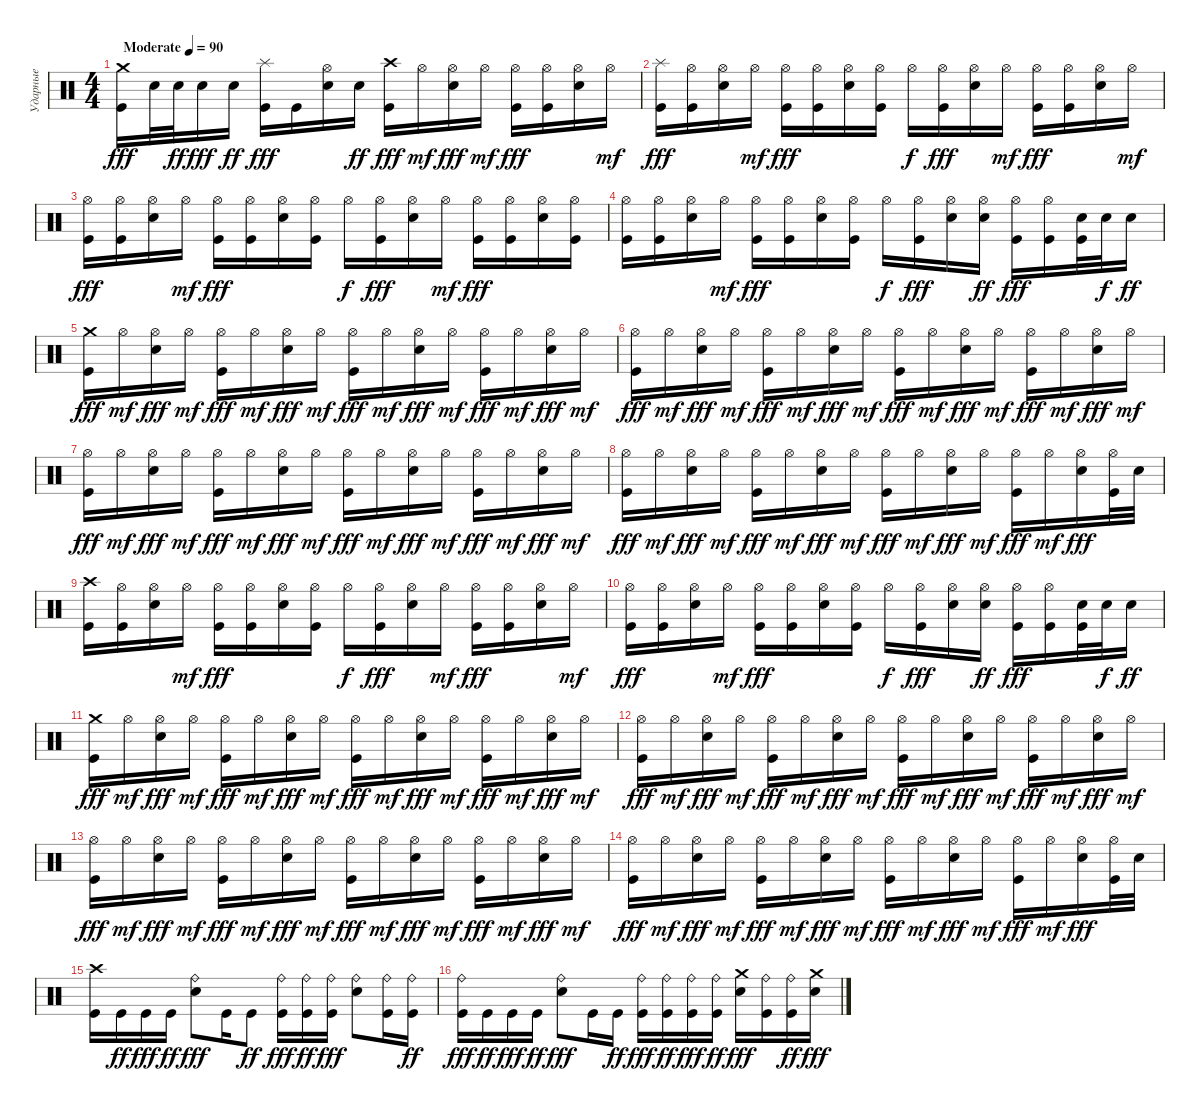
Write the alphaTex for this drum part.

\track ("Ударные" "Ударные") {instrument percussion}
\staff {score}
\articulation defaults
\ts (4 4)
\tempo (90 "Moderate")
\clef neutral
\ks c
("Crash medium (hit)" "Kick (hit)").16{dy fff} "Electric Snare (hit)".32 "Electric Snare (hit)".32{dy ff} "Electric Snare (hit)".16{dy fff} "Electric Snare (hit)".16{dy ff} ("Splash (hit)" "Kick (hit)").16{dy fff} "Kick (hit)".16 ("Hi-Hat (open)" "Electric Snare (hit)").16 "Electric Snare (hit)".16{dy ff} ("Crash high (hit)" "Kick (hit)").16{dy fff} "Hi-Hat (open)".16{dy mf} ("Hi-Hat (open)" "Electric Snare (hit)").16{dy fff} "Hi-Hat (open)".16{dy mf} ("Hi-Hat (open)" "Kick (hit)").16{dy fff} ("Hi-Hat (open)" "Kick (hit)").16 ("Hi-Hat (open)" "Electric Snare (hit)").16 "Hi-Hat (open)".16{dy mf} |
("Splash (hit)" "Kick (hit)").16{dy fff} ("Hi-Hat (open)" "Kick (hit)").16 ("Hi-Hat (open)" "Electric Snare (hit)").16 "Hi-Hat (open)".16{dy mf} ("Hi-Hat (open)" "Kick (hit)").16{dy fff} ("Hi-Hat (open)" "Kick (hit)").16 ("Hi-Hat (open)" "Electric Snare (hit)").16 ("Hi-Hat (open)" "Kick (hit)").16 "Hi-Hat (open)".16{dy f} ("Hi-Hat (open)" "Kick (hit)").16{dy fff} ("Hi-Hat (open)" "Electric Snare (hit)").16 "Hi-Hat (open)".16{dy mf} ("Hi-Hat (open)" "Kick (hit)").16{dy fff} ("Hi-Hat (open)" "Kick (hit)").16 ("Hi-Hat (open)" "Electric Snare (hit)").16 "Hi-Hat (open)".16{dy mf} |
("Hi-Hat (open)" "Kick (hit)").16{dy fff} ("Hi-Hat (open)" "Kick (hit)").16 ("Hi-Hat (open)" "Electric Snare (hit)").16 "Hi-Hat (open)".16{dy mf} ("Hi-Hat (open)" "Kick (hit)").16{dy fff} ("Hi-Hat (open)" "Kick (hit)").16 ("Hi-Hat (open)" "Electric Snare (hit)").16 ("Hi-Hat (open)" "Kick (hit)").16 "Hi-Hat (open)".16{dy f} ("Hi-Hat (open)" "Kick (hit)").16{dy fff} ("Hi-Hat (open)" "Electric Snare (hit)").16 "Hi-Hat (open)".16{dy mf} ("Hi-Hat (open)" "Kick (hit)").16{dy fff} ("Hi-Hat (open)" "Kick (hit)").16 ("Hi-Hat (open)" "Electric Snare (hit)").16 ("Hi-Hat (open)" "Kick (hit)").16 |
("Hi-Hat (open)" "Kick (hit)").16 ("Hi-Hat (open)" "Kick (hit)").16 ("Hi-Hat (open)" "Electric Snare (hit)").16 "Hi-Hat (open)".16{dy mf} ("Hi-Hat (open)" "Kick (hit)").16{dy fff} ("Hi-Hat (open)" "Kick (hit)").16 ("Hi-Hat (open)" "Electric Snare (hit)").16 ("Hi-Hat (open)" "Kick (hit)").16 "Hi-Hat (open)".16{dy f} ("Hi-Hat (open)" "Kick (hit)").16{dy fff} ("Hi-Hat (open)" "Electric Snare (hit)").16 ("Hi-Hat (open)" "Electric Snare (hit)").16{dy ff} ("Hi-Hat (open)" "Kick (hit)").16{dy fff} ("Hi-Hat (open)" "Kick (hit)").16 ("Electric Snare (hit)" "Kick (hit)").32 "Electric Snare (hit)".32{dy f} "Electric Snare (hit)".16{dy ff} |
("Crash medium (hit)" "Kick (hit)").16{dy fff} "Hi-Hat (open)".16{dy mf} ("Hi-Hat (open)" "Electric Snare (hit)").16{dy fff} "Hi-Hat (open)".16{dy mf} ("Hi-Hat (open)" "Kick (hit)").16{dy fff} "Hi-Hat (open)".16{dy mf} ("Hi-Hat (open)" "Electric Snare (hit)").16{dy fff} "Hi-Hat (open)".16{dy mf} ("Hi-Hat (open)" "Kick (hit)").16{dy fff} "Hi-Hat (open)".16{dy mf} ("Hi-Hat (open)" "Electric Snare (hit)").16{dy fff} "Hi-Hat (open)".16{dy mf} ("Hi-Hat (open)" "Kick (hit)").16{dy fff} "Hi-Hat (open)".16{dy mf} ("Hi-Hat (open)" "Electric Snare (hit)").16{dy fff} "Hi-Hat (open)".16{dy mf} |
("Hi-Hat (open)" "Kick (hit)").16{dy fff} "Hi-Hat (open)".16{dy mf} ("Hi-Hat (open)" "Electric Snare (hit)").16{dy fff} "Hi-Hat (open)".16{dy mf} ("Hi-Hat (open)" "Kick (hit)").16{dy fff} "Hi-Hat (open)".16{dy mf} ("Hi-Hat (open)" "Electric Snare (hit)").16{dy fff} "Hi-Hat (open)".16{dy mf} ("Hi-Hat (open)" "Kick (hit)").16{dy fff} "Hi-Hat (open)".16{dy mf} ("Hi-Hat (open)" "Electric Snare (hit)").16{dy fff} "Hi-Hat (open)".16{dy mf} ("Hi-Hat (open)" "Kick (hit)").16{dy fff} "Hi-Hat (open)".16{dy mf} ("Hi-Hat (open)" "Electric Snare (hit)").16{dy fff} "Hi-Hat (open)".16{dy mf} |
("Hi-Hat (open)" "Kick (hit)").16{dy fff} "Hi-Hat (open)".16{dy mf} ("Hi-Hat (open)" "Electric Snare (hit)").16{dy fff} "Hi-Hat (open)".16{dy mf} ("Hi-Hat (open)" "Kick (hit)").16{dy fff} "Hi-Hat (open)".16{dy mf} ("Hi-Hat (open)" "Electric Snare (hit)").16{dy fff} "Hi-Hat (open)".16{dy mf} ("Hi-Hat (open)" "Kick (hit)").16{dy fff} "Hi-Hat (open)".16{dy mf} ("Hi-Hat (open)" "Electric Snare (hit)").16{dy fff} "Hi-Hat (open)".16{dy mf} ("Hi-Hat (open)" "Kick (hit)").16{dy fff} "Hi-Hat (open)".16{dy mf} ("Hi-Hat (open)" "Electric Snare (hit)").16{dy fff} "Hi-Hat (open)".16{dy mf} |
("Hi-Hat (open)" "Kick (hit)").16{dy fff} "Hi-Hat (open)".16{dy mf} ("Hi-Hat (open)" "Electric Snare (hit)").16{dy fff} "Hi-Hat (open)".16{dy mf} ("Hi-Hat (open)" "Kick (hit)").16{dy fff} "Hi-Hat (open)".16{dy mf} ("Hi-Hat (open)" "Electric Snare (hit)").16{dy fff} "Hi-Hat (open)".16{dy mf} ("Hi-Hat (open)" "Kick (hit)").16{dy fff} "Hi-Hat (open)".16{dy mf} ("Hi-Hat (open)" "Electric Snare (hit)").16{dy fff} "Hi-Hat (open)".16{dy mf} ("Hi-Hat (open)" "Kick (hit)").16{dy fff} "Hi-Hat (open)".16{dy mf} ("Hi-Hat (open)" "Electric Snare (hit)").16{dy fff} ("Hi-Hat (open)" "Kick (hit)").32 "Electric Snare (hit)".32 |
("Crash high (hit)" "Kick (hit)").16 ("Hi-Hat (open)" "Kick (hit)").16 ("Hi-Hat (open)" "Electric Snare (hit)").16 "Hi-Hat (open)".16{dy mf} ("Hi-Hat (open)" "Kick (hit)").16{dy fff} ("Hi-Hat (open)" "Kick (hit)").16 ("Hi-Hat (open)" "Electric Snare (hit)").16 ("Hi-Hat (open)" "Kick (hit)").16 "Hi-Hat (open)".16{dy f} ("Hi-Hat (open)" "Kick (hit)").16{dy fff} ("Hi-Hat (open)" "Electric Snare (hit)").16 "Hi-Hat (open)".16{dy mf} ("Hi-Hat (open)" "Kick (hit)").16{dy fff} ("Hi-Hat (open)" "Kick (hit)").16 ("Hi-Hat (open)" "Electric Snare (hit)").16 "Hi-Hat (open)".16{dy mf} |
("Hi-Hat (open)" "Kick (hit)").16{dy fff} ("Hi-Hat (open)" "Kick (hit)").16 ("Hi-Hat (open)" "Electric Snare (hit)").16 "Hi-Hat (open)".16{dy mf} ("Hi-Hat (open)" "Kick (hit)").16{dy fff} ("Hi-Hat (open)" "Kick (hit)").16 ("Hi-Hat (open)" "Electric Snare (hit)").16 ("Hi-Hat (open)" "Kick (hit)").16 "Hi-Hat (open)".16{dy f} ("Hi-Hat (open)" "Kick (hit)").16{dy fff} ("Hi-Hat (open)" "Electric Snare (hit)").16 ("Hi-Hat (open)" "Electric Snare (hit)").16{dy ff} ("Hi-Hat (open)" "Kick (hit)").16{dy fff} ("Hi-Hat (open)" "Kick (hit)").16 ("Electric Snare (hit)" "Kick (hit)").32 "Electric Snare (hit)".32{dy f} "Electric Snare (hit)".16{dy ff} |
("Crash medium (hit)" "Kick (hit)").16{dy fff} "Hi-Hat (open)".16{dy mf} ("Hi-Hat (open)" "Electric Snare (hit)").16{dy fff} "Hi-Hat (open)".16{dy mf} ("Hi-Hat (open)" "Kick (hit)").16{dy fff} "Hi-Hat (open)".16{dy mf} ("Hi-Hat (open)" "Electric Snare (hit)").16{dy fff} "Hi-Hat (open)".16{dy mf} ("Hi-Hat (open)" "Kick (hit)").16{dy fff} "Hi-Hat (open)".16{dy mf} ("Hi-Hat (open)" "Electric Snare (hit)").16{dy fff} "Hi-Hat (open)".16{dy mf} ("Hi-Hat (open)" "Kick (hit)").16{dy fff} "Hi-Hat (open)".16{dy mf} ("Hi-Hat (open)" "Electric Snare (hit)").16{dy fff} "Hi-Hat (open)".16{dy mf} |
("Hi-Hat (open)" "Kick (hit)").16{dy fff} "Hi-Hat (open)".16{dy mf} ("Hi-Hat (open)" "Electric Snare (hit)").16{dy fff} "Hi-Hat (open)".16{dy mf} ("Hi-Hat (open)" "Kick (hit)").16{dy fff} "Hi-Hat (open)".16{dy mf} ("Hi-Hat (open)" "Electric Snare (hit)").16{dy fff} "Hi-Hat (open)".16{dy mf} ("Hi-Hat (open)" "Kick (hit)").16{dy fff} "Hi-Hat (open)".16{dy mf} ("Hi-Hat (open)" "Electric Snare (hit)").16{dy fff} "Hi-Hat (open)".16{dy mf} ("Hi-Hat (open)" "Kick (hit)").16{dy fff} "Hi-Hat (open)".16{dy mf} ("Hi-Hat (open)" "Electric Snare (hit)").16{dy fff} "Hi-Hat (open)".16{dy mf} |
("Hi-Hat (open)" "Kick (hit)").16{dy fff} "Hi-Hat (open)".16{dy mf} ("Hi-Hat (open)" "Electric Snare (hit)").16{dy fff} "Hi-Hat (open)".16{dy mf} ("Hi-Hat (open)" "Kick (hit)").16{dy fff} "Hi-Hat (open)".16{dy mf} ("Hi-Hat (open)" "Electric Snare (hit)").16{dy fff} "Hi-Hat (open)".16{dy mf} ("Hi-Hat (open)" "Kick (hit)").16{dy fff} "Hi-Hat (open)".16{dy mf} ("Hi-Hat (open)" "Electric Snare (hit)").16{dy fff} "Hi-Hat (open)".16{dy mf} ("Hi-Hat (open)" "Kick (hit)").16{dy fff} "Hi-Hat (open)".16{dy mf} ("Hi-Hat (open)" "Electric Snare (hit)").16{dy fff} "Hi-Hat (open)".16{dy mf} |
("Hi-Hat (open)" "Kick (hit)").16{dy fff} "Hi-Hat (open)".16{dy mf} ("Hi-Hat (open)" "Electric Snare (hit)").16{dy fff} "Hi-Hat (open)".16{dy mf} ("Hi-Hat (open)" "Kick (hit)").16{dy fff} "Hi-Hat (open)".16{dy mf} ("Hi-Hat (open)" "Electric Snare (hit)").16{dy fff} "Hi-Hat (open)".16{dy mf} ("Hi-Hat (open)" "Kick (hit)").16{dy fff} "Hi-Hat (open)".16{dy mf} ("Hi-Hat (open)" "Electric Snare (hit)").16{dy fff} "Hi-Hat (open)".16{dy mf} ("Hi-Hat (open)" "Kick (hit)").16{dy fff} "Hi-Hat (open)".16{dy mf} ("Hi-Hat (open)" "Electric Snare (hit)").16{dy fff} ("Hi-Hat (open)" "Kick (hit)").32 "Electric Snare (hit)".32 |
("Crash high (hit)" "Kick (hit)").16 "Kick (hit)".16{dy ff} "Kick (hit)".16{dy fff} "Kick (hit)".16{dy ff} ("Ride (bell)" "Electric Snare (hit)").8{dy fff} "Kick (hit)".16 "Kick (hit)".8{dy ff} ("Ride (bell)" "Kick (hit)").16{dy fff} ("Ride (bell)" "Kick (hit)").16{dy ff} ("Ride (bell)" "Kick (hit)").16{dy fff} ("Ride (bell)" "Electric Snare (hit)").8 ("Ride (bell)" "Kick (hit)").16 ("Ride (bell)" "Kick (hit)").16{dy ff} |
("Ride (bell)" "Kick (hit)").16{dy fff} "Kick (hit)".16{dy ff} "Kick (hit)".16{dy fff} "Kick (hit)".16{dy ff} ("Ride (bell)" "Electric Snare (hit)").8{dy fff} "Kick (hit)".16 "Kick (hit)".16{dy ff} ("Ride (bell)" "Kick (hit)").16{dy fff} ("Ride (bell)" "Kick (hit)").16{dy ff} ("Ride (bell)" "Kick (hit)").16{dy fff} ("Ride (bell)" "Kick (hit)").16{dy ff} ("Crash medium (hit)" "Electric Snare (hit)").16{dy fff} ("Ride (bell)" "Kick (hit)").16 ("Ride (bell)" "Kick (hit)").16{dy ff} ("Crash medium (hit)" "Electric Snare (hit)").16{dy fff}
